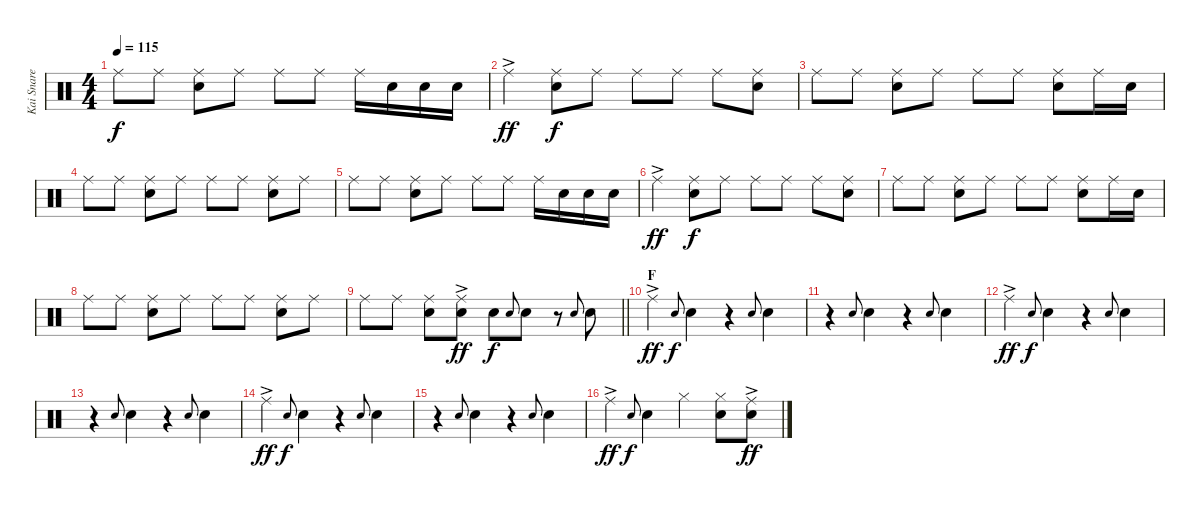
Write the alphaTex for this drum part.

\track ("Kai Snare" "Kai Snare") {instrument percussion}
\staff {score}
\articulation defaults
\ts (4 4)
\tempo 115
\clef neutral
\ks c "Ride (middle)".8{dy f} "Ride (middle)".8
("Ride (middle)" "Snare (hit) 2").8 "Ride (middle)".8 "Ride (middle)".8 "Ride (middle)".8 "Ride (middle)".16 "Snare (hit) 2".16 "Snare (hit) 2".16 "Snare (hit) 2".16 |
"Ride (middle)"{ac}.4{dy ff} ("Ride (middle)" "Snare (hit) 2").8{dy f} "Ride (middle)".8 "Ride (middle)".8 "Ride (middle)".8 "Ride (middle)".8 ("Ride (middle)" "Snare (hit) 2").8 |
"Ride (middle)".8 "Ride (middle)".8 ("Ride (middle)" "Snare (hit) 2").8 "Ride (middle)".8 "Ride (middle)".8 "Ride (middle)".8 ("Ride (middle)" "Snare (hit) 2").8 "Ride (middle)".16 "Snare (hit) 2".16 |
"Ride (middle)".8 "Ride (middle)".8 ("Ride (middle)" "Snare (hit) 2").8 "Ride (middle)".8 "Ride (middle)".8 "Ride (middle)".8 ("Ride (middle)" "Snare (hit) 2").8 "Ride (middle)".8 |
"Ride (middle)".8 "Ride (middle)".8 ("Ride (middle)" "Snare (hit) 2").8 "Ride (middle)".8 "Ride (middle)".8 "Ride (middle)".8 "Ride (middle)".16 "Snare (hit) 2".16 "Snare (hit) 2".16 "Snare (hit) 2".16 |
"Ride (middle)"{ac}.4{dy ff} ("Ride (middle)" "Snare (hit) 2").8{dy f} "Ride (middle)".8 "Ride (middle)".8 "Ride (middle)".8 "Ride (middle)".8 ("Ride (middle)" "Snare (hit) 2").8 |
"Ride (middle)".8 "Ride (middle)".8 ("Ride (middle)" "Snare (hit) 2").8 "Ride (middle)".8 "Ride (middle)".8 "Ride (middle)".8 ("Ride (middle)" "Snare (hit) 2").8 "Ride (middle)".16 "Snare (hit) 2".16 |
"Ride (middle)".8 "Ride (middle)".8 ("Ride (middle)" "Snare (hit) 2").8 "Ride (middle)".8 "Ride (middle)".8 "Ride (middle)".8 ("Ride (middle)" "Snare (hit) 2").8 "Ride (middle)".8 |
\barLineRight lightlight "Ride (middle)".8 "Ride (middle)".8
("Ride (middle)" "Snare (hit) 2").8 ("Ride (middle)"{ac} "Snare (hit) 2").8{dy ff} "Snare (hit) 2".8{dy f} "Snare (hit) 2".8{gr onbeat} "Snare (hit) 2".8 r.8 "Snare (hit) 2".8{gr onbeat} "Snare (hit) 2".8 |
\section ("" "F")
"Ride (middle)"{ac}.4{dy ff} "Snare (hit) 2".8{gr onbeat dy f} "Snare (hit) 2".4 r.4 "Snare (hit) 2".8{gr onbeat} "Snare (hit) 2".4 |
r.4 "Snare (hit) 2".8{gr onbeat} "Snare (hit) 2".4 r.4 "Snare (hit) 2".8{gr onbeat} "Snare (hit) 2".4 |
"Ride (middle)"{ac}.4{dy ff} "Snare (hit) 2".8{gr onbeat dy f} "Snare (hit) 2".4 r.4 "Snare (hit) 2".8{gr onbeat} "Snare (hit) 2".4 |
r.4 "Snare (hit) 2".8{gr onbeat} "Snare (hit) 2".4 r.4 "Snare (hit) 2".8{gr onbeat} "Snare (hit) 2".4 |
"Ride (middle)"{ac}.4{dy ff} "Snare (hit) 2".8{gr onbeat dy f} "Snare (hit) 2".4 r.4 "Snare (hit) 2".8{gr onbeat} "Snare (hit) 2".4 |
r.4 "Snare (hit) 2".8{gr onbeat} "Snare (hit) 2".4 r.4 "Snare (hit) 2".8{gr onbeat} "Snare (hit) 2".4 |
"Ride (middle)"{ac}.4{dy ff} "Snare (hit) 2".8{gr onbeat dy f} "Snare (hit) 2".4 "Hi-Hat (closed)".4 ("Hi-Hat (closed)" "Snare (hit) 2").8 ("Ride (middle)"{ac} "Snare (hit) 2").8{dy ff}
